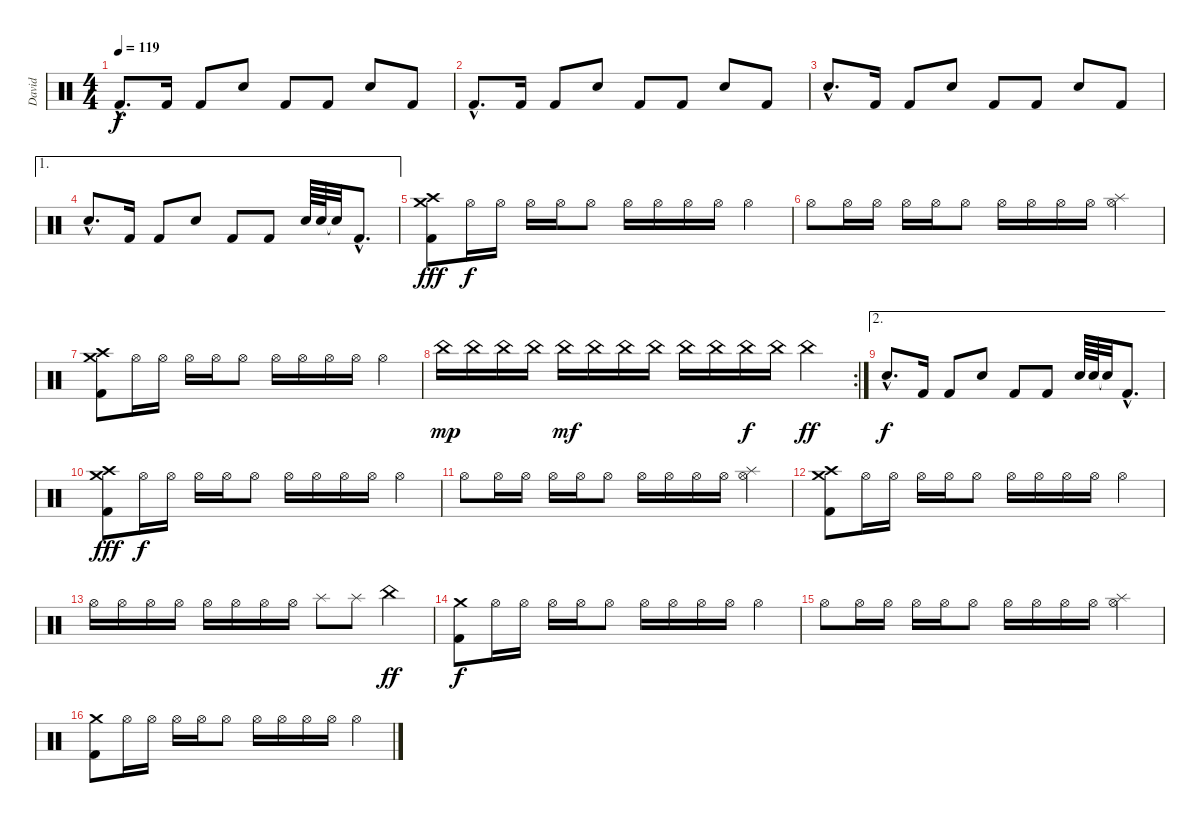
\track ("David" "David") {instrument percussion}
\staff {score}
\articulation defaults
\ts (4 4)
\tempo 119
\clef neutral
\ks c "Kick (hit) 2"{hac}.8{d dy f} "Kick (hit) 2".16 "Kick (hit) 2".8 "Snare (hit) 2".8 "Kick (hit) 2".8 "Kick (hit) 2".8 "Snare (hit) 2".8 "Kick (hit) 2".8
|
"Kick (hit) 2"{hac}.8{d} "Kick (hit) 2".16 "Kick (hit) 2".8 "Snare (hit) 2".8 "Kick (hit) 2".8 "Kick (hit) 2".8 "Snare (hit) 2".8 "Kick (hit) 2".8 |
"Snare (hit) 2"{hac}.8{d} "Kick (hit) 2".16 "Kick (hit) 2".8 "Snare (hit) 2".8 "Kick (hit) 2".8 "Kick (hit) 2".8 "Snare (hit) 2".8 "Kick (hit) 2".8 |
\ae 1 "Snare (hit) 2"{hac}.8{d} "Kick (hit) 2".16 "Kick (hit) 2".8 "Snare (hit) 2".8 "Kick (hit) 2".8 "Kick (hit) 2".8 "Snare (hit) 2".64 "Snare (hit) 2".64 "Snare (hit)"{t}.32 "Kick (hit) 2"{hac}.8{d}
|
("Crash medium (hit)" "Crash high (hit)" "Kick (hit) 2").8{dy fff} "Hi-Hat (open)".16{dy f} "Hi-Hat (open)".16 "Hi-Hat (open)".16 "Hi-Hat (open)".16 "Hi-Hat (open)".8 "Hi-Hat (open)".16 "Hi-Hat (open)".16 "Hi-Hat (open)".16 "Hi-Hat (open)".16 "Hi-Hat (open)".4 |
"Hi-Hat (open)".8 "Hi-Hat (open)".16 "Hi-Hat (open)".16 "Hi-Hat (open)".16 "Hi-Hat (open)".16 "Hi-Hat (open)".8 "Hi-Hat (open)".16 "Hi-Hat (open)".16 "Hi-Hat (open)".16 "Hi-Hat (open)".16 ("Splash (hit)" "Hi-Hat (open)").4 |
("Crash medium (hit)" "Crash high (hit)" "Kick (hit) 2").8 "Hi-Hat (open)".16 "Hi-Hat (open)".16 "Hi-Hat (open)".16 "Hi-Hat (open)".16 "Hi-Hat (open)".8 "Hi-Hat (open)".16 "Hi-Hat (open)".16 "Hi-Hat (open)".16 "Hi-Hat (open)".16 "Hi-Hat (open)".4 |
\rc 2 "China (hit)".16{dy mp} "China (hit)".16 "China (hit)".16 "China (hit)".16 "China (hit)".16{dy mf} "China (hit)".16 "China (hit)".16 "China (hit)".16 "China (hit)".16 "China (hit)".16 "China (hit)".16{dy f} "China (hit)".16 "China (hit)".4{dy ff}
|
\ae 2 "Snare (hit) 2"{hac}.8{d dy f} "Kick (hit) 2".16 "Kick (hit) 2".8 "Snare (hit) 2".8 "Kick (hit) 2".8 "Kick (hit) 2".8 "Snare (hit) 2".64 "Snare (hit) 2".64 "Snare (hit)"{t}.32 "Kick (hit) 2"{hac}.8{d}
|
("Crash medium (hit)" "Crash high (hit)" "Kick (hit) 2").8{dy fff} "Hi-Hat (open)".16{dy f} "Hi-Hat (open)".16 "Hi-Hat (open)".16 "Hi-Hat (open)".16 "Hi-Hat (open)".8 "Hi-Hat (open)".16 "Hi-Hat (open)".16 "Hi-Hat (open)".16 "Hi-Hat (open)".16 "Hi-Hat (open)".4 |
"Hi-Hat (open)".8 "Hi-Hat (open)".16 "Hi-Hat (open)".16 "Hi-Hat (open)".16 "Hi-Hat (open)".16 "Hi-Hat (open)".8 "Hi-Hat (open)".16 "Hi-Hat (open)".16 "Hi-Hat (open)".16 "Hi-Hat (open)".16 ("Splash (hit)" "Hi-Hat (open)").4 |
("Crash medium (hit)" "Crash high (hit)" "Kick (hit) 2").8 "Hi-Hat (open)".16 "Hi-Hat (open)".16 "Hi-Hat (open)".16 "Hi-Hat (open)".16 "Hi-Hat (open)".8 "Hi-Hat (open)".16 "Hi-Hat (open)".16 "Hi-Hat (open)".16 "Hi-Hat (open)".16 "Hi-Hat (open)".4 |
"Hi-Hat (open)".16 "Hi-Hat (open)".16 "Hi-Hat (open)".16 "Hi-Hat (open)".16 "Hi-Hat (open)".16 "Hi-Hat (open)".16 "Hi-Hat (open)".16 "Hi-Hat (open)".16 "Splash (hit)".8 "Splash (hit)".8 "China (hit)".4{dy ff} |
("Crash medium (hit)" "Kick (hit) 2").8{dy f} "Hi-Hat (open)".16 "Hi-Hat (open)".16 "Hi-Hat (open)".16 "Hi-Hat (open)".16 "Hi-Hat (open)".8 "Hi-Hat (open)".16 "Hi-Hat (open)".16 "Hi-Hat (open)".16 "Hi-Hat (open)".16 "Hi-Hat (open)".4 |
"Hi-Hat (open)".8 "Hi-Hat (open)".16 "Hi-Hat (open)".16 "Hi-Hat (open)".16 "Hi-Hat (open)".16 "Hi-Hat (open)".8 "Hi-Hat (open)".16 "Hi-Hat (open)".16 "Hi-Hat (open)".16 "Hi-Hat (open)".16 ("Splash (hit)" "Hi-Hat (open)").4 |
("Crash medium (hit)" "Kick (hit) 2").8 "Hi-Hat (open)".16 "Hi-Hat (open)".16 "Hi-Hat (open)".16 "Hi-Hat (open)".16 "Hi-Hat (open)".8 "Hi-Hat (open)".16 "Hi-Hat (open)".16 "Hi-Hat (open)".16 "Hi-Hat (open)".16 "Hi-Hat (open)".4
